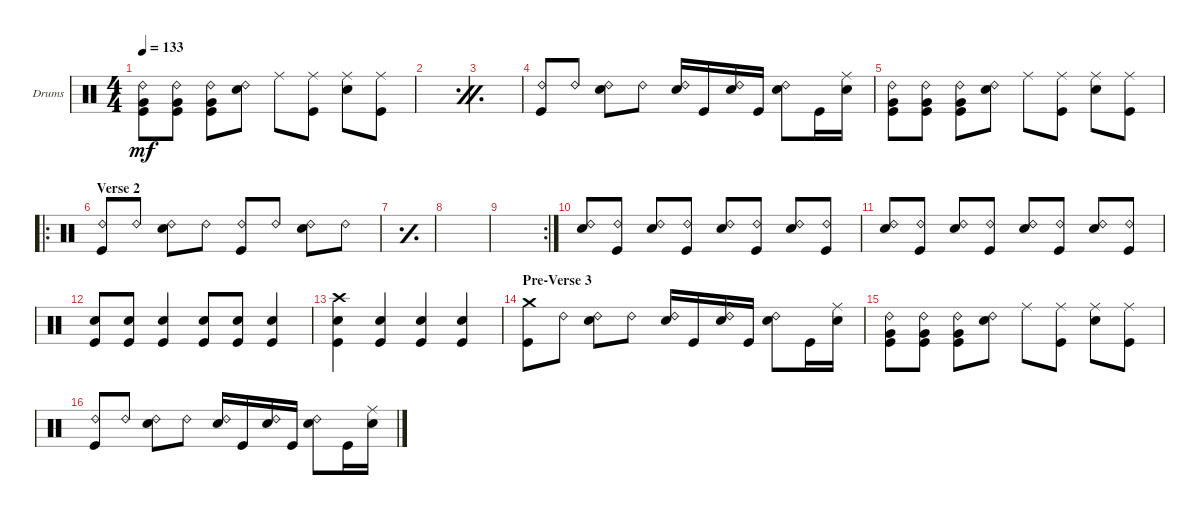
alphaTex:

\defaultSystemsLayout 4
\bracketExtendMode groupsimilarinstruments
\firstSystemTrackNameOrientation horizontal
\otherSystemsTrackNameOrientation horizontal
\chordDiagramsInScore
\track ("Drumkit" "Drums") {instrument percussion}
\staff {score}
\articulation defaults
\ts (4 4)
\tempo 133
\clef neutral
\ks c
("Very Low Tom (hit)" "Kick (hit)" "Ride (bell) 2").8{dy mf} ("Very Low Tom (hit)" "Kick (hit)" "Ride (bell) 2").8 ("Very Low Tom (hit)" "Kick (hit)" "Ride (bell) 2").8 ("Snare (hit) 2" "Ride (bell) 2").8 "Ride (middle)".8 ("Kick (hit)" "Ride (middle)").8 ("Snare (hit) 2" "Ride (middle)").8 ("Kick (hit)" "Ride (middle)").8 |
\simile firstofdouble
|
\simile secondofdouble
|
\simile none
("Kick (hit)" "Ride (bell) 2").8 "Ride (bell) 2".8 ("Snare (hit) 2" "Ride (bell) 2").8 "Ride (bell) 2".8 ("Snare (hit) 2" "Ride (bell) 2").16 "Kick (hit)".16 ("Snare (hit) 2" "Ride (bell) 2").16 "Kick (hit)".16 ("Snare (hit) 2" "Ride (bell) 2").8 "Kick (hit)".16 ("Snare (hit) 2" "Ride (middle)").16 |
("Very Low Tom (hit)" "Kick (hit)" "Ride (bell) 2").8 ("Very Low Tom (hit)" "Kick (hit)" "Ride (bell) 2").8 ("Very Low Tom (hit)" "Kick (hit)" "Ride (bell) 2").8 ("Snare (hit) 2" "Ride (bell) 2").8 "Ride (middle)".8 ("Kick (hit)" "Ride (middle)").8 ("Snare (hit) 2" "Ride (middle)").8 ("Kick (hit)" "Ride (middle)").8 |
\ro
\section ("" "Verse 2")
("Ride (bell) 2" "Kick (hit)").8 "Ride (bell) 2".8 ("Ride (bell) 2" "Snare (hit) 2").8 "Ride (bell) 2".8 ("Ride (bell) 2" "Kick (hit)").8 "Ride (bell) 2".8 ("Ride (bell) 2" "Snare (hit) 2").8 "Ride (bell) 2".8 |
\simile simple
|
|
\rc 2
|
\simile none
("Ride (bell) 2" "Snare (hit) 2").8 ("Ride (bell) 2" "Kick (hit)").8 ("Ride (bell) 2" "Snare (hit) 2").8 ("Ride (bell) 2" "Kick (hit)").8 ("Ride (bell) 2" "Snare (hit) 2").8 ("Ride (bell) 2" "Kick (hit)").8 ("Ride (bell) 2" "Snare (hit) 2").8 ("Ride (bell) 2" "Kick (hit)").8 |
("Ride (bell) 2" "Snare (hit) 2").8 ("Ride (bell) 2" "Kick (hit)").8 ("Ride (bell) 2" "Snare (hit) 2").8 ("Ride (bell) 2" "Kick (hit)").8 ("Ride (bell) 2" "Snare (hit) 2").8 ("Ride (bell) 2" "Kick (hit)").8 ("Ride (bell) 2" "Snare (hit) 2").8 ("Ride (bell) 2" "Kick (hit)").8 |
("Kick (hit)" "Snare (hit) 2").8 ("Kick (hit)" "Snare (hit) 2").8 ("Kick (hit)" "Snare (hit) 2").4 ("Kick (hit)" "Snare (hit) 2").8 ("Kick (hit)" "Snare (hit) 2").8 ("Kick (hit)" "Snare (hit) 2").4 |
("Kick (hit)" "Snare (hit) 2" "Crash high (hit)").4 ("Snare (hit) 2" "Kick (hit)").4 ("Snare (hit) 2" "Kick (hit)").4 ("Snare (hit) 2" "Kick (hit)").4 |
\section ("" "Pre-Verse 3")
("Kick (hit)" "Crash medium (hit)").8 "Ride (bell) 2".8 ("Snare (hit) 2" "Ride (bell) 2").8 "Ride (bell) 2".8 ("Snare (hit) 2" "Ride (bell) 2").16 "Kick (hit)".16 ("Snare (hit) 2" "Ride (bell) 2").16 "Kick (hit)".16 ("Snare (hit) 2" "Ride (bell) 2").8 "Kick (hit)".16 ("Snare (hit) 2" "Ride (middle)").16 |
("Very Low Tom (hit)" "Kick (hit)" "Ride (bell) 2").8 ("Very Low Tom (hit)" "Kick (hit)" "Ride (bell) 2").8 ("Very Low Tom (hit)" "Kick (hit)" "Ride (bell) 2").8 ("Snare (hit) 2" "Ride (bell) 2").8 "Ride (middle)".8 ("Kick (hit)" "Ride (middle)").8 ("Snare (hit) 2" "Ride (middle)").8 ("Kick (hit)" "Ride (middle)").8 |
("Kick (hit)" "Ride (bell) 2").8 "Ride (bell) 2".8 ("Snare (hit) 2" "Ride (bell) 2").8 "Ride (bell) 2".8 ("Snare (hit) 2" "Ride (bell) 2").16 "Kick (hit)".16 ("Snare (hit) 2" "Ride (bell) 2").16 "Kick (hit)".16 ("Snare (hit) 2" "Ride (bell) 2").8 "Kick (hit)".16 ("Snare (hit) 2" "Ride (middle)").16
